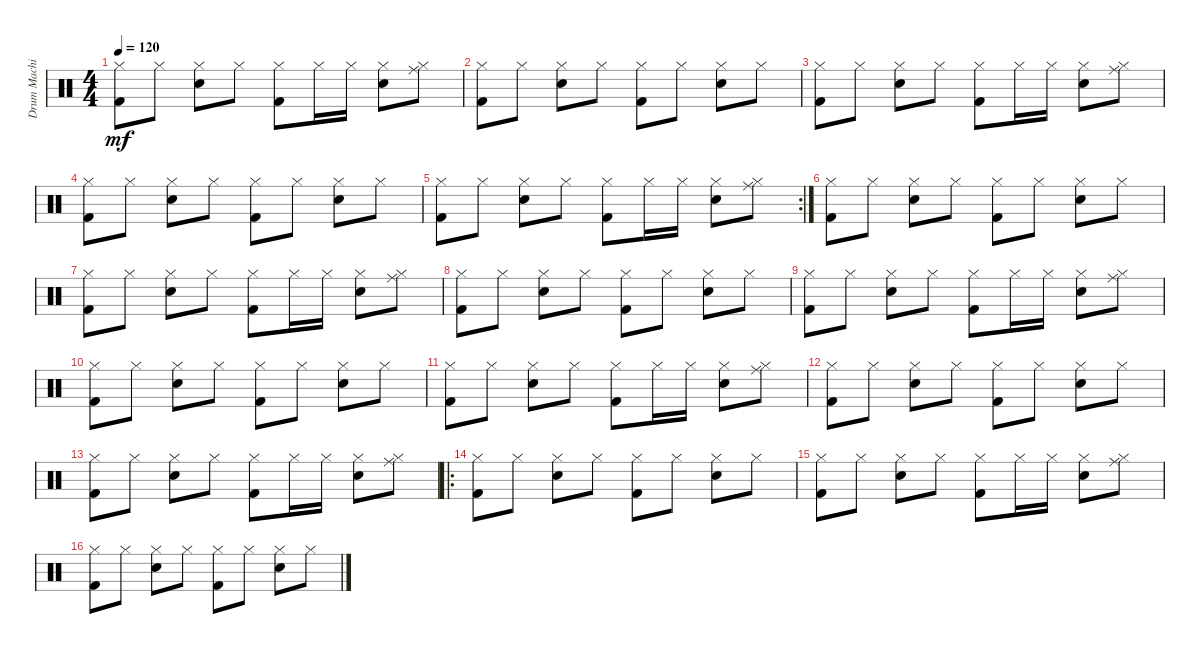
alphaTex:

\track ("Drum Machine" "Drum Machi") {instrument percussion}
\staff {score}
\articulation defaults
\ts (4 4)
\tempo 120
\clef neutral
\ks c
("Hi-Hat (closed)" "Kick (hit) 2").8{dy mf} "Hi-Hat (closed)".8 ("Hi-Hat (closed)" "Snare (hit) 2").8 "Hi-Hat (closed)".8 ("Hi-Hat (closed)" "Kick (hit) 2").8 "Hi-Hat (closed)".16 "Hi-Hat (closed)".16 ("Hi-Hat (closed)" "Snare (hit) 2").8 ("Hi-Hat (closed)" "Ride (middle)").8 |
("Hi-Hat (closed)" "Kick (hit) 2").8 "Hi-Hat (closed)".8 ("Hi-Hat (closed)" "Snare (hit) 2").8 "Hi-Hat (closed)".8 ("Hi-Hat (closed)" "Kick (hit) 2").8 "Hi-Hat (closed)".8 ("Hi-Hat (closed)" "Snare (hit) 2").8 "Hi-Hat (closed)".8 |
("Hi-Hat (closed)" "Kick (hit) 2").8 "Hi-Hat (closed)".8 ("Hi-Hat (closed)" "Snare (hit) 2").8 "Hi-Hat (closed)".8 ("Hi-Hat (closed)" "Kick (hit) 2").8 "Hi-Hat (closed)".16 "Hi-Hat (closed)".16 ("Hi-Hat (closed)" "Snare (hit) 2").8 ("Hi-Hat (closed)" "Ride (middle)").8 |
("Hi-Hat (closed)" "Kick (hit) 2").8 "Hi-Hat (closed)".8 ("Hi-Hat (closed)" "Snare (hit) 2").8 "Hi-Hat (closed)".8 ("Hi-Hat (closed)" "Kick (hit) 2").8 "Hi-Hat (closed)".8 ("Hi-Hat (closed)" "Snare (hit) 2").8 "Hi-Hat (closed)".8 |
\rc 2
("Hi-Hat (closed)" "Kick (hit) 2").8 "Hi-Hat (closed)".8 ("Hi-Hat (closed)" "Snare (hit) 2").8 "Hi-Hat (closed)".8 ("Hi-Hat (closed)" "Kick (hit) 2").8 "Hi-Hat (closed)".16 "Hi-Hat (closed)".16 ("Hi-Hat (closed)" "Snare (hit) 2").8 ("Hi-Hat (closed)" "Ride (middle)").8 |
("Hi-Hat (closed)" "Kick (hit) 2").8 "Hi-Hat (closed)".8 ("Hi-Hat (closed)" "Snare (hit) 2").8 "Hi-Hat (closed)".8 ("Hi-Hat (closed)" "Kick (hit) 2").8 "Hi-Hat (closed)".8 ("Hi-Hat (closed)" "Snare (hit) 2").8 "Hi-Hat (closed)".8 |
("Hi-Hat (closed)" "Kick (hit) 2").8 "Hi-Hat (closed)".8 ("Hi-Hat (closed)" "Snare (hit) 2").8 "Hi-Hat (closed)".8 ("Hi-Hat (closed)" "Kick (hit) 2").8 "Hi-Hat (closed)".16 "Hi-Hat (closed)".16 ("Hi-Hat (closed)" "Snare (hit) 2").8 ("Hi-Hat (closed)" "Ride (middle)").8 |
("Hi-Hat (closed)" "Kick (hit) 2").8 "Hi-Hat (closed)".8 ("Hi-Hat (closed)" "Snare (hit) 2").8 "Hi-Hat (closed)".8 ("Hi-Hat (closed)" "Kick (hit) 2").8 "Hi-Hat (closed)".8 ("Hi-Hat (closed)" "Snare (hit) 2").8 "Hi-Hat (closed)".8 |
("Hi-Hat (closed)" "Kick (hit) 2").8 "Hi-Hat (closed)".8 ("Hi-Hat (closed)" "Snare (hit) 2").8 "Hi-Hat (closed)".8 ("Hi-Hat (closed)" "Kick (hit) 2").8 "Hi-Hat (closed)".16 "Hi-Hat (closed)".16 ("Hi-Hat (closed)" "Snare (hit) 2").8 ("Hi-Hat (closed)" "Ride (middle)").8 |
("Hi-Hat (closed)" "Kick (hit) 2").8 "Hi-Hat (closed)".8 ("Hi-Hat (closed)" "Snare (hit) 2").8 "Hi-Hat (closed)".8 ("Hi-Hat (closed)" "Kick (hit) 2").8 "Hi-Hat (closed)".8 ("Hi-Hat (closed)" "Snare (hit) 2").8 "Hi-Hat (closed)".8 |
("Hi-Hat (closed)" "Kick (hit) 2").8 "Hi-Hat (closed)".8 ("Hi-Hat (closed)" "Snare (hit) 2").8 "Hi-Hat (closed)".8 ("Hi-Hat (closed)" "Kick (hit) 2").8 "Hi-Hat (closed)".16 "Hi-Hat (closed)".16 ("Hi-Hat (closed)" "Snare (hit) 2").8 ("Hi-Hat (closed)" "Ride (middle)").8 |
("Hi-Hat (closed)" "Kick (hit) 2").8 "Hi-Hat (closed)".8 ("Hi-Hat (closed)" "Snare (hit) 2").8 "Hi-Hat (closed)".8 ("Hi-Hat (closed)" "Kick (hit) 2").8 "Hi-Hat (closed)".8 ("Hi-Hat (closed)" "Snare (hit) 2").8 "Hi-Hat (closed)".8 |
("Hi-Hat (closed)" "Kick (hit) 2").8 "Hi-Hat (closed)".8 ("Hi-Hat (closed)" "Snare (hit) 2").8 "Hi-Hat (closed)".8 ("Hi-Hat (closed)" "Kick (hit) 2").8 "Hi-Hat (closed)".16 "Hi-Hat (closed)".16 ("Hi-Hat (closed)" "Snare (hit) 2").8 ("Hi-Hat (closed)" "Ride (middle)").8 |
\ro
("Hi-Hat (closed)" "Kick (hit) 2").8 "Hi-Hat (closed)".8 ("Hi-Hat (closed)" "Snare (hit) 2").8 "Hi-Hat (closed)".8 ("Hi-Hat (closed)" "Kick (hit) 2").8 "Hi-Hat (closed)".8 ("Hi-Hat (closed)" "Snare (hit) 2").8 "Hi-Hat (closed)".8 |
("Hi-Hat (closed)" "Kick (hit) 2").8 "Hi-Hat (closed)".8 ("Hi-Hat (closed)" "Snare (hit) 2").8 "Hi-Hat (closed)".8 ("Hi-Hat (closed)" "Kick (hit) 2").8 "Hi-Hat (closed)".16 "Hi-Hat (closed)".16 ("Hi-Hat (closed)" "Snare (hit) 2").8 ("Hi-Hat (closed)" "Ride (middle)").8 |
("Hi-Hat (closed)" "Kick (hit) 2").8 "Hi-Hat (closed)".8 ("Hi-Hat (closed)" "Snare (hit) 2").8 "Hi-Hat (closed)".8 ("Hi-Hat (closed)" "Kick (hit) 2").8 "Hi-Hat (closed)".8 ("Hi-Hat (closed)" "Snare (hit) 2").8 "Hi-Hat (closed)".8
